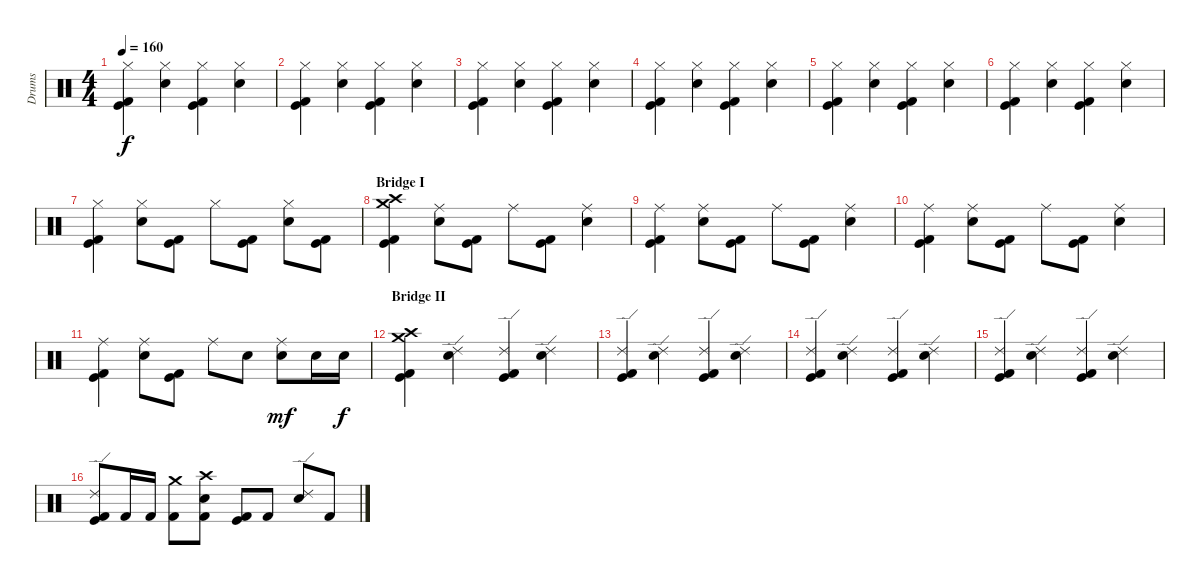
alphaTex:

\track ("Drums" "Drums") {instrument percussion}
\staff {score}
\articulation defaults
\ts (4 4)
\tempo 160
\clef neutral
\ks c
("Hi-Hat (closed)" "Kick (hit)" "Kick (hit) 2").4{dy f} ("Hi-Hat (closed)" "Snare (hit) 2").4 ("Hi-Hat (closed)" "Kick (hit)" "Kick (hit) 2").4 ("Hi-Hat (closed)" "Snare (hit) 2").4 |
("Hi-Hat (closed)" "Kick (hit)" "Kick (hit) 2").4 ("Hi-Hat (closed)" "Snare (hit) 2").4 ("Hi-Hat (closed)" "Kick (hit)" "Kick (hit) 2").4 ("Hi-Hat (closed)" "Snare (hit) 2").4 |
("Hi-Hat (closed)" "Kick (hit)" "Kick (hit) 2").4 ("Hi-Hat (closed)" "Snare (hit) 2").4 ("Hi-Hat (closed)" "Kick (hit)" "Kick (hit) 2").4 ("Hi-Hat (closed)" "Snare (hit) 2").4 |
("Hi-Hat (closed)" "Kick (hit)" "Kick (hit) 2").4 ("Hi-Hat (closed)" "Snare (hit) 2").4 ("Hi-Hat (closed)" "Kick (hit)" "Kick (hit) 2").4 ("Hi-Hat (closed)" "Snare (hit) 2").4 |
("Hi-Hat (closed)" "Kick (hit)" "Kick (hit) 2").4 ("Hi-Hat (closed)" "Snare (hit) 2").4 ("Hi-Hat (closed)" "Kick (hit)" "Kick (hit) 2").4 ("Hi-Hat (closed)" "Snare (hit) 2").4 |
("Hi-Hat (closed)" "Kick (hit)" "Kick (hit) 2").4 ("Hi-Hat (closed)" "Snare (hit) 2").4 ("Hi-Hat (closed)" "Kick (hit)" "Kick (hit) 2").4 ("Hi-Hat (closed)" "Snare (hit) 2").4 |
("Hi-Hat (closed)" "Kick (hit)" "Kick (hit) 2").4 ("Hi-Hat (closed)" "Snare (hit) 2").8 ("Kick (hit)" "Kick (hit) 2").8 "Hi-Hat (closed)".8 ("Kick (hit)" "Kick (hit) 2").8 ("Hi-Hat (closed)" "Snare (hit) 2").8 ("Kick (hit)" "Kick (hit) 2").8 |
\section ("" "Bridge I")
("Crash medium (hit)" "Crash high (hit)" "Kick (hit)" "Kick (hit) 2").4 ("Ride (middle)" "Snare (hit) 2").8 ("Kick (hit)" "Kick (hit) 2").8 "Ride (middle)".8 ("Kick (hit)" "Kick (hit) 2").8 ("Ride (middle)" "Snare (hit) 2").4 |
("Ride (middle)" "Kick (hit)" "Kick (hit) 2").4 ("Ride (middle)" "Snare (hit) 2").8 ("Kick (hit)" "Kick (hit) 2").8 "Ride (middle)".8 ("Kick (hit)" "Kick (hit) 2").8 ("Ride (middle)" "Snare (hit) 2").4 |
("Ride (middle)" "Kick (hit)" "Kick (hit) 2").4 ("Ride (middle)" "Snare (hit) 2").8 ("Kick (hit)" "Kick (hit) 2").8 "Ride (middle)".8 ("Kick (hit)" "Kick (hit) 2").8 ("Ride (middle)" "Snare (hit) 2").4 |
("Ride (middle)" "Kick (hit)" "Kick (hit) 2").4 ("Ride (middle)" "Snare (hit) 2").8 ("Kick (hit)" "Kick (hit) 2").8 "Ride (middle)".8 "Snare (hit) 2".8 ("Ride (middle)" "Snare (hit) 2").8{dy mf} "Snare (hit) 2".16 "Snare (hit) 2".16{dy f} |
\section ("" "Bridge II")
("Crash medium (hit)" "Crash high (hit)" "Kick (hit)" "Kick (hit) 2").4 ("Ride (edge) 2" "Snare (hit) 2").4 ("Ride (edge) 2" "Kick (hit)" "Kick (hit) 2").4 ("Ride (edge) 2" "Snare (hit) 2").4 |
("Ride (edge) 2" "Kick (hit)" "Kick (hit) 2").4 ("Ride (edge) 2" "Snare (hit) 2").4 ("Ride (edge) 2" "Kick (hit)" "Kick (hit) 2").4 ("Ride (edge) 2" "Snare (hit) 2").4 |
("Ride (edge) 2" "Kick (hit)" "Kick (hit) 2").4 ("Ride (edge) 2" "Snare (hit) 2").4 ("Ride (edge) 2" "Kick (hit)" "Kick (hit) 2").4 ("Ride (edge) 2" "Snare (hit) 2").4 |
("Ride (edge) 2" "Kick (hit)" "Kick (hit) 2").4 ("Ride (edge) 2" "Snare (hit) 2").4 ("Ride (edge) 2" "Kick (hit)" "Kick (hit) 2").4 ("Ride (edge) 2" "Snare (hit) 2").4 |
("Ride (edge) 2" "Kick (hit)" "Kick (hit) 2").8 "Kick (hit) 2".16 "Kick (hit) 2".16 ("Crash medium (hit)" "Kick (hit) 2").8 ("Crash high (hit)" "Snare (hit) 2" "Kick (hit) 2").8 ("Kick (hit)" "Kick (hit) 2").8 "Kick (hit) 2".8 ("Ride (edge) 2" "Snare (hit) 2").8 "Kick (hit) 2".8
